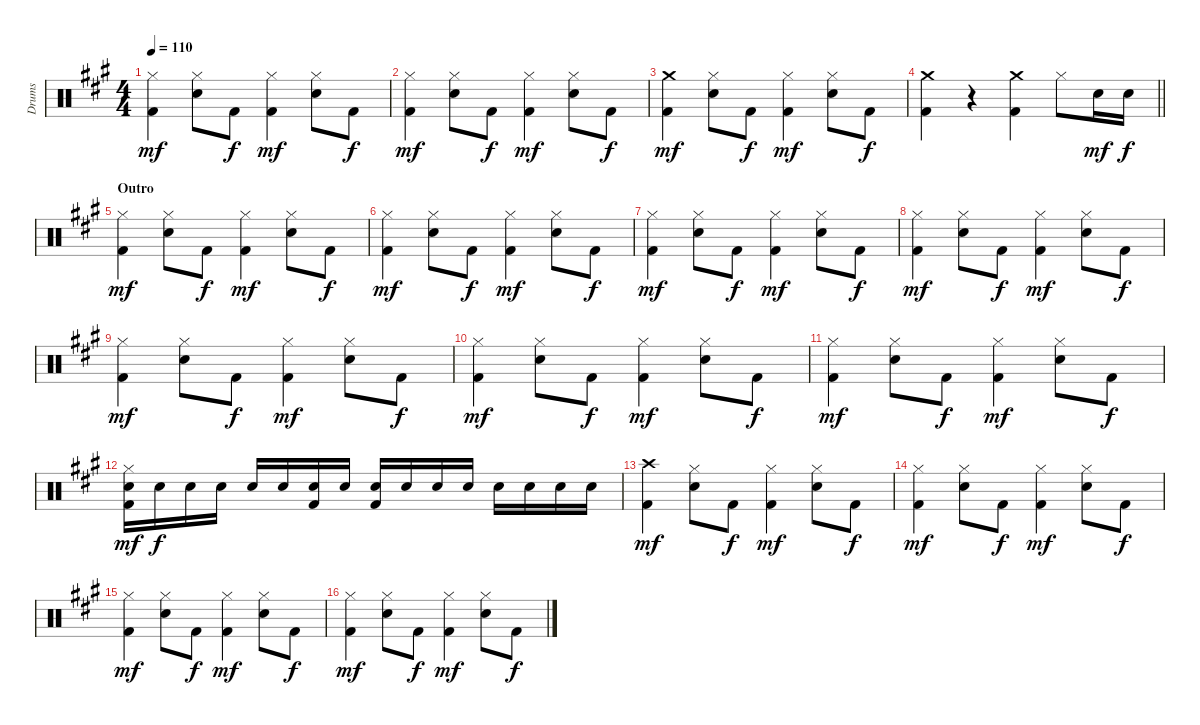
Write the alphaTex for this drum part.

\track ("Drums" "Drums") {instrument percussion}
\staff {score}
\articulation defaults
\ts (4 4)
\tempo 110
\clef neutral
\ks a
("Hi-Hat (closed)" "Kick (hit) 2").4{dy mf} ("Hi-Hat (closed)" "Snare (hit) 2").8 "Kick (hit) 2".8{dy f} ("Hi-Hat (closed)" "Kick (hit) 2").4{dy mf} ("Hi-Hat (closed)" "Snare (hit) 2").8 "Kick (hit) 2".8{dy f} |
("Hi-Hat (closed)" "Kick (hit) 2").4{dy mf} ("Hi-Hat (closed)" "Snare (hit) 2").8 "Kick (hit) 2".8{dy f} ("Hi-Hat (closed)" "Kick (hit) 2").4{dy mf} ("Hi-Hat (closed)" "Snare (hit) 2").8 "Kick (hit) 2".8{dy f} |
("Crash medium (hit)" "Kick (hit) 2").4{dy mf} ("Hi-Hat (closed)" "Snare (hit) 2").8 "Kick (hit) 2".8{dy f} ("Hi-Hat (closed)" "Kick (hit) 2").4{dy mf} ("Hi-Hat (closed)" "Snare (hit) 2").8 "Kick (hit) 2".8{dy f} |
\barLineRight lightlight
("Crash medium (hit)" "Kick (hit) 2").4 r.4 ("Crash medium (hit)" "Kick (hit) 2").4 "Hi-Hat (closed)".8 "Snare (hit) 2".16{dy mf} "Snare (hit) 2".16{dy f} |
\section ("" "Outro")
("Hi-Hat (closed)" "Kick (hit) 2").4{dy mf} ("Hi-Hat (closed)" "Snare (hit) 2").8 "Kick (hit) 2".8{dy f} ("Hi-Hat (closed)" "Kick (hit) 2").4{dy mf} ("Hi-Hat (closed)" "Snare (hit) 2").8 "Kick (hit) 2".8{dy f} |
("Hi-Hat (closed)" "Kick (hit) 2").4{dy mf} ("Hi-Hat (closed)" "Snare (hit) 2").8 "Kick (hit) 2".8{dy f} ("Hi-Hat (closed)" "Kick (hit) 2").4{dy mf} ("Hi-Hat (closed)" "Snare (hit) 2").8 "Kick (hit) 2".8{dy f} |
("Hi-Hat (closed)" "Kick (hit) 2").4{dy mf} ("Hi-Hat (closed)" "Snare (hit) 2").8 "Kick (hit) 2".8{dy f} ("Hi-Hat (closed)" "Kick (hit) 2").4{dy mf} ("Hi-Hat (closed)" "Snare (hit) 2").8 "Kick (hit) 2".8{dy f} |
("Hi-Hat (closed)" "Kick (hit) 2").4{dy mf} ("Hi-Hat (closed)" "Snare (hit) 2").8 "Kick (hit) 2".8{dy f} ("Hi-Hat (closed)" "Kick (hit) 2").4{dy mf} ("Hi-Hat (closed)" "Snare (hit) 2").8 "Kick (hit) 2".8{dy f} |
("Hi-Hat (closed)" "Kick (hit) 2").4{dy mf} ("Hi-Hat (closed)" "Snare (hit) 2").8 "Kick (hit) 2".8{dy f} ("Hi-Hat (closed)" "Kick (hit) 2").4{dy mf} ("Hi-Hat (closed)" "Snare (hit) 2").8 "Kick (hit) 2".8{dy f} |
("Hi-Hat (closed)" "Kick (hit) 2").4{dy mf} ("Hi-Hat (closed)" "Snare (hit) 2").8 "Kick (hit) 2".8{dy f} ("Hi-Hat (closed)" "Kick (hit) 2").4{dy mf} ("Hi-Hat (closed)" "Snare (hit) 2").8 "Kick (hit) 2".8{dy f} |
("Hi-Hat (closed)" "Kick (hit) 2").4{dy mf} ("Hi-Hat (closed)" "Snare (hit) 2").8 "Kick (hit) 2".8{dy f} ("Hi-Hat (closed)" "Kick (hit) 2").4{dy mf} ("Hi-Hat (closed)" "Snare (hit) 2").8 "Kick (hit) 2".8{dy f} |
("Hi-Hat (closed)" "Snare (hit) 2" "Kick (hit) 2").16{dy mf} "Snare (hit) 2".16{dy f} "Snare (hit) 2".16 "Snare (hit) 2".16 "Snare (hit) 2".16 "Snare (hit) 2".16 ("Snare (hit) 2" "Kick (hit) 2").16 "Snare (hit) 2".16 ("Snare (hit) 2" "Kick (hit) 2").16 "Snare (hit) 2".16 "Snare (hit) 2".16 "Snare (hit) 2".16 "Snare (hit) 2".16 "Snare (hit) 2".16 "Snare (hit) 2".16 "Snare (hit) 2".16 |
("Crash high (hit)" "Kick (hit) 2").4{dy mf} ("Hi-Hat (closed)" "Snare (hit) 2").8 "Kick (hit) 2".8{dy f} ("Hi-Hat (closed)" "Kick (hit) 2").4{dy mf} ("Hi-Hat (closed)" "Snare (hit) 2").8 "Kick (hit) 2".8{dy f} |
("Hi-Hat (closed)" "Kick (hit) 2").4{dy mf} ("Hi-Hat (closed)" "Snare (hit) 2").8 "Kick (hit) 2".8{dy f} ("Hi-Hat (closed)" "Kick (hit) 2").4{dy mf} ("Hi-Hat (closed)" "Snare (hit) 2").8 "Kick (hit) 2".8{dy f} |
("Hi-Hat (closed)" "Kick (hit) 2").4{dy mf} ("Hi-Hat (closed)" "Snare (hit) 2").8 "Kick (hit) 2".8{dy f} ("Hi-Hat (closed)" "Kick (hit) 2").4{dy mf} ("Hi-Hat (closed)" "Snare (hit) 2").8 "Kick (hit) 2".8{dy f} |
("Hi-Hat (closed)" "Kick (hit) 2").4{dy mf} ("Hi-Hat (closed)" "Snare (hit) 2").8 "Kick (hit) 2".8{dy f} ("Hi-Hat (closed)" "Kick (hit) 2").4{dy mf} ("Hi-Hat (closed)" "Snare (hit) 2").8 "Kick (hit) 2".8{dy f}
